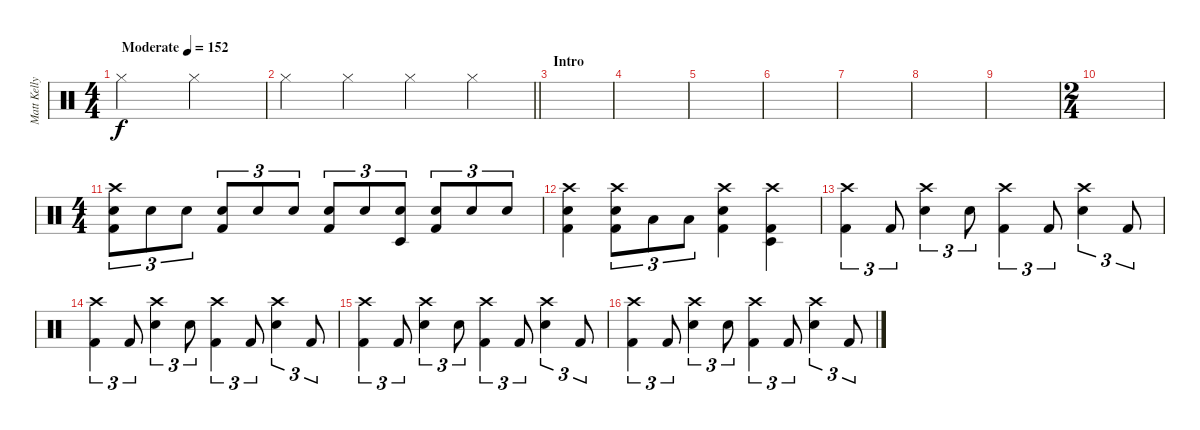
\track ("Matt Kelly (Drums)" "Matt Kelly") {instrument percussion}
\staff {score}
\articulation defaults
\ts (4 4)
\tempo (152 "Moderate")
\clef neutral
\ks c "Hi-Hat (closed)".2{dy f} "Hi-Hat (closed)".2
|
\barLineRight lightlight "Hi-Hat (closed)".4 "Hi-Hat (closed)".4 "Hi-Hat (closed)".4 "Hi-Hat (closed)".4
|
\section ("" "Intro")
|
|
|
|
|
|
|
\ts (2 4)
|
\ts (4 4)
("Crash high (hit)" "Electric Snare (hit)" "Kick (hit) 2").8{tu (3 2)} "Electric Snare (hit)".8{tu (3 2)} "Electric Snare (hit)".8{tu (3 2)} ("Electric Snare (hit)" "Kick (hit) 2").8{tu (3 2)} "Electric Snare (hit)".8{tu (3 2)} "Electric Snare (hit)".8{tu (3 2)} ("Electric Snare (hit)" "Kick (hit) 2").8{tu (3 2)} "Electric Snare (hit)".8{tu (3 2)} ("Timbale low (hit)" "Electric Snare (hit)").8{tu (3 2)} ("Electric Snare (hit)" "Kick (hit) 2").8{tu (3 2)} "Electric Snare (hit)".8{tu (3 2)} "Electric Snare (hit)".8{tu (3 2)} |
("Crash high (hit)" "Electric Snare (hit)" "Kick (hit) 2").4 ("Crash high (hit)" "Electric Snare (hit)" "Kick (hit) 2").8{tu (3 2)} "Low Tom (hit)".8{tu (3 2)} "Low Tom (hit)".8{tu (3 2)} ("Crash high (hit)" "Electric Snare (hit)" "Kick (hit) 2").4 ("Crash high (hit)" "Timbale low (hit)" "Kick (hit) 2").4 |
("Crash high (hit)" "Kick (hit) 2").4{tu (3 2)} "Kick (hit) 2".8{tu (3 2)} ("Crash high (hit)" "Electric Snare (hit)").4{tu (3 2)} "Electric Snare (hit)".8{tu (3 2)} ("Crash high (hit)" "Kick (hit) 2").4{tu (3 2)} "Kick (hit) 2".8{tu (3 2)} ("Crash high (hit)" "Electric Snare (hit)").4{tu (3 2)} "Kick (hit) 2".8{tu (3 2)} |
("Crash high (hit)" "Kick (hit) 2").4{tu (3 2)} "Kick (hit) 2".8{tu (3 2)} ("Crash high (hit)" "Electric Snare (hit)").4{tu (3 2)} "Electric Snare (hit)".8{tu (3 2)} ("Crash high (hit)" "Kick (hit) 2").4{tu (3 2)} "Kick (hit) 2".8{tu (3 2)} ("Crash high (hit)" "Electric Snare (hit)").4{tu (3 2)} "Kick (hit) 2".8{tu (3 2)} |
("Crash high (hit)" "Kick (hit) 2").4{tu (3 2)} "Kick (hit) 2".8{tu (3 2)} ("Crash high (hit)" "Electric Snare (hit)").4{tu (3 2)} "Electric Snare (hit)".8{tu (3 2)} ("Crash high (hit)" "Kick (hit) 2").4{tu (3 2)} "Kick (hit) 2".8{tu (3 2)} ("Crash high (hit)" "Electric Snare (hit)").4{tu (3 2)} "Kick (hit) 2".8{tu (3 2)} |
("Crash high (hit)" "Kick (hit) 2").4{tu (3 2)} "Kick (hit) 2".8{tu (3 2)} ("Crash high (hit)" "Electric Snare (hit)").4{tu (3 2)} "Electric Snare (hit)".8{tu (3 2)} ("Crash high (hit)" "Kick (hit) 2").4{tu (3 2)} "Kick (hit) 2".8{tu (3 2)} ("Crash high (hit)" "Electric Snare (hit)").4{tu (3 2)} "Kick (hit) 2".8{tu (3 2)}
